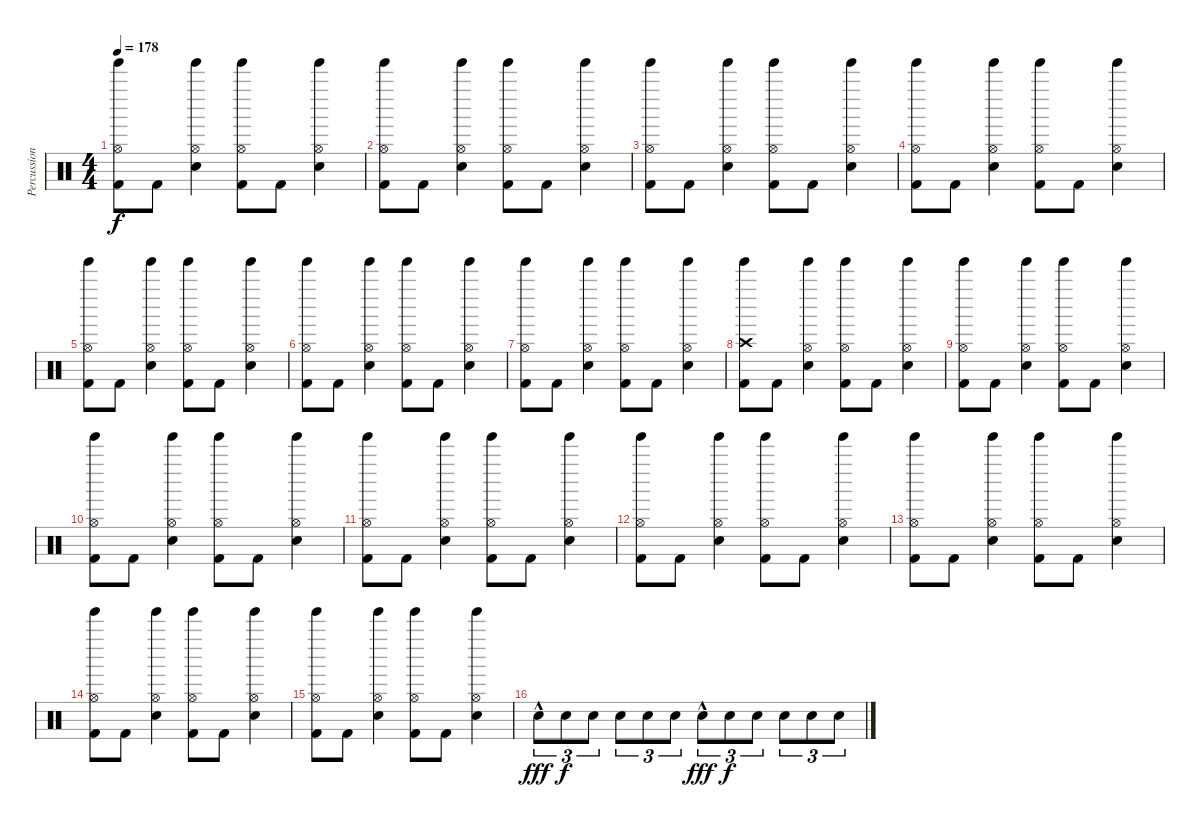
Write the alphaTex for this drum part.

\track ("Percussion" "Percussion") {instrument percussion}
\staff {score}
\articulation defaults
\ts (4 4)
\tempo 178
\clef neutral
\ks c
("Hi-Hat (open)" "Tinkle Bell (hit)" "Kick (hit) 2").8{dy f} "Kick (hit) 2".8 ("Hi-Hat (open)" "Tinkle Bell (hit)" "Snare (hit) 2").4 ("Hi-Hat (open)" "Tinkle Bell (hit)" "Kick (hit) 2").8 "Kick (hit) 2".8 ("Hi-Hat (open)" "Tinkle Bell (hit)" "Snare (hit) 2").4 |
("Hi-Hat (open)" "Tinkle Bell (hit)" "Kick (hit) 2").8 "Kick (hit) 2".8 ("Hi-Hat (open)" "Tinkle Bell (hit)" "Snare (hit) 2").4 ("Hi-Hat (open)" "Tinkle Bell (hit)" "Kick (hit) 2").8 "Kick (hit) 2".8 ("Hi-Hat (open)" "Tinkle Bell (hit)" "Snare (hit) 2").4 |
("Hi-Hat (open)" "Tinkle Bell (hit)" "Kick (hit) 2").8 "Kick (hit) 2".8 ("Hi-Hat (open)" "Tinkle Bell (hit)" "Snare (hit) 2").4 ("Hi-Hat (open)" "Tinkle Bell (hit)" "Kick (hit) 2").8 "Kick (hit) 2".8 ("Hi-Hat (open)" "Tinkle Bell (hit)" "Snare (hit) 2").4 |
("Hi-Hat (open)" "Tinkle Bell (hit)" "Kick (hit) 2").8 "Kick (hit) 2".8 ("Hi-Hat (open)" "Tinkle Bell (hit)" "Snare (hit) 2").4 ("Hi-Hat (open)" "Tinkle Bell (hit)" "Kick (hit) 2").8 "Kick (hit) 2".8 ("Hi-Hat (open)" "Tinkle Bell (hit)" "Snare (hit) 2").4 |
("Hi-Hat (open)" "Tinkle Bell (hit)" "Kick (hit) 2").8 "Kick (hit) 2".8 ("Hi-Hat (open)" "Tinkle Bell (hit)" "Snare (hit) 2").4 ("Hi-Hat (open)" "Tinkle Bell (hit)" "Kick (hit) 2").8 "Kick (hit) 2".8 ("Hi-Hat (open)" "Tinkle Bell (hit)" "Snare (hit) 2").4 |
("Hi-Hat (open)" "Tinkle Bell (hit)" "Kick (hit) 2").8 "Kick (hit) 2".8 ("Hi-Hat (open)" "Tinkle Bell (hit)" "Snare (hit) 2").4 ("Hi-Hat (open)" "Tinkle Bell (hit)" "Kick (hit) 2").8 "Kick (hit) 2".8 ("Hi-Hat (open)" "Tinkle Bell (hit)" "Snare (hit) 2").4 |
("Hi-Hat (open)" "Tinkle Bell (hit)" "Kick (hit) 2").8 "Kick (hit) 2".8 ("Hi-Hat (open)" "Tinkle Bell (hit)" "Snare (hit) 2").4 ("Hi-Hat (open)" "Tinkle Bell (hit)" "Kick (hit) 2").8 "Kick (hit) 2".8 ("Hi-Hat (open)" "Tinkle Bell (hit)" "Snare (hit) 2").4 |
("Crash high (hit)" "Tinkle Bell (hit)" "Kick (hit) 2").8 "Kick (hit) 2".8 ("Hi-Hat (open)" "Tinkle Bell (hit)" "Snare (hit) 2").4 ("Hi-Hat (open)" "Tinkle Bell (hit)" "Kick (hit) 2").8 "Kick (hit) 2".8 ("Hi-Hat (open)" "Tinkle Bell (hit)" "Snare (hit) 2").4 |
("Hi-Hat (open)" "Tinkle Bell (hit)" "Kick (hit) 2").8 "Kick (hit) 2".8 ("Hi-Hat (open)" "Tinkle Bell (hit)" "Snare (hit) 2").4 ("Hi-Hat (open)" "Tinkle Bell (hit)" "Kick (hit) 2").8 "Kick (hit) 2".8 ("Hi-Hat (open)" "Tinkle Bell (hit)" "Snare (hit) 2").4 |
("Hi-Hat (open)" "Tinkle Bell (hit)" "Kick (hit) 2").8 "Kick (hit) 2".8 ("Hi-Hat (open)" "Tinkle Bell (hit)" "Snare (hit) 2").4 ("Hi-Hat (open)" "Tinkle Bell (hit)" "Kick (hit) 2").8 "Kick (hit) 2".8 ("Hi-Hat (open)" "Tinkle Bell (hit)" "Snare (hit) 2").4 |
("Hi-Hat (open)" "Tinkle Bell (hit)" "Kick (hit) 2").8 "Kick (hit) 2".8 ("Hi-Hat (open)" "Tinkle Bell (hit)" "Snare (hit) 2").4 ("Hi-Hat (open)" "Tinkle Bell (hit)" "Kick (hit) 2").8 "Kick (hit) 2".8 ("Hi-Hat (open)" "Tinkle Bell (hit)" "Snare (hit) 2").4 |
("Hi-Hat (open)" "Tinkle Bell (hit)" "Kick (hit) 2").8 "Kick (hit) 2".8 ("Hi-Hat (open)" "Tinkle Bell (hit)" "Snare (hit) 2").4 ("Hi-Hat (open)" "Tinkle Bell (hit)" "Kick (hit) 2").8 "Kick (hit) 2".8 ("Hi-Hat (open)" "Tinkle Bell (hit)" "Snare (hit) 2").4 |
("Hi-Hat (open)" "Tinkle Bell (hit)" "Kick (hit) 2").8 "Kick (hit) 2".8 ("Hi-Hat (open)" "Tinkle Bell (hit)" "Snare (hit) 2").4 ("Hi-Hat (open)" "Tinkle Bell (hit)" "Kick (hit) 2").8 "Kick (hit) 2".8 ("Hi-Hat (open)" "Tinkle Bell (hit)" "Snare (hit) 2").4 |
("Hi-Hat (open)" "Tinkle Bell (hit)" "Kick (hit) 2").8 "Kick (hit) 2".8 ("Hi-Hat (open)" "Tinkle Bell (hit)" "Snare (hit) 2").4 ("Hi-Hat (open)" "Tinkle Bell (hit)" "Kick (hit) 2").8 "Kick (hit) 2".8 ("Hi-Hat (open)" "Tinkle Bell (hit)" "Snare (hit) 2").4 |
("Hi-Hat (open)" "Tinkle Bell (hit)" "Kick (hit) 2").8 "Kick (hit) 2".8 ("Hi-Hat (open)" "Tinkle Bell (hit)" "Snare (hit) 2").4 ("Hi-Hat (open)" "Tinkle Bell (hit)" "Kick (hit) 2").8 "Kick (hit) 2".8 ("Hi-Hat (open)" "Tinkle Bell (hit)" "Snare (hit) 2").4 |
"Snare (hit) 2"{hac}.8{tu (3 2) dy fff} "Snare (hit) 2".8{tu (3 2) dy f} "Snare (hit) 2".8{tu (3 2)} "Snare (hit) 2".8{tu (3 2)} "Snare (hit) 2".8{tu (3 2)} "Snare (hit) 2".8{tu (3 2)} "Snare (hit) 2"{hac}.8{tu (3 2) dy fff} "Snare (hit) 2".8{tu (3 2) dy f} "Snare (hit) 2".8{tu (3 2)} "Snare (hit) 2".8{tu (3 2)} "Snare (hit) 2".8{tu (3 2)} "Snare (hit) 2".8{tu (3 2)}
